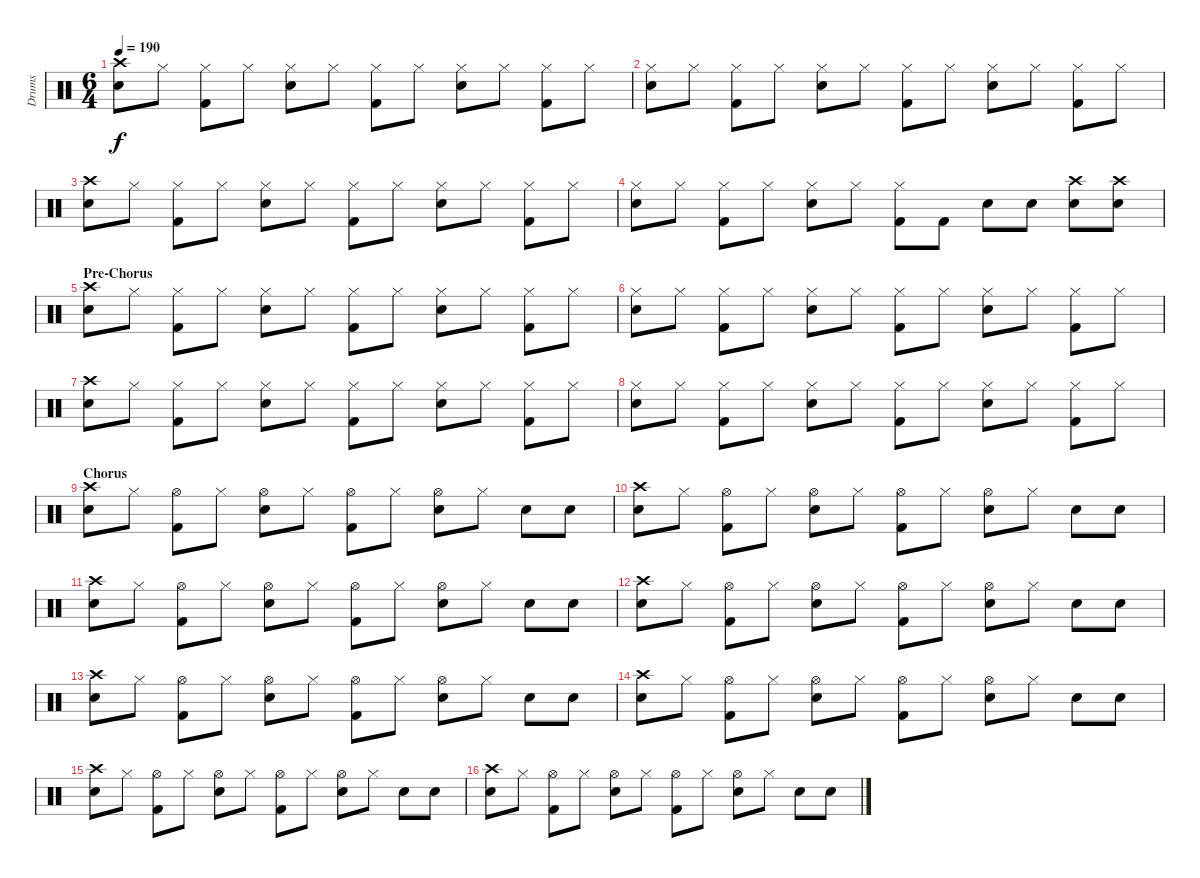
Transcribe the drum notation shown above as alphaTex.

\track ("Drums" "Drums") {instrument percussion}
\staff {score}
\articulation defaults
\ts (6 4)
\tempo 190
\clef neutral
\ks c
("Crash high (hit)" "Snare (hit) 2").8{dy f} "Hi-Hat (closed)".8 ("Hi-Hat (closed)" "Kick (hit) 2").8 "Hi-Hat (closed)".8 ("Hi-Hat (closed)" "Snare (hit) 2").8 "Hi-Hat (closed)".8 ("Hi-Hat (closed)" "Kick (hit) 2").8 "Hi-Hat (closed)".8 ("Hi-Hat (closed)" "Snare (hit) 2").8 "Hi-Hat (closed)".8 ("Hi-Hat (closed)" "Kick (hit) 2").8 "Hi-Hat (closed)".8 |
("Hi-Hat (closed)" "Snare (hit) 2").8 "Hi-Hat (closed)".8 ("Hi-Hat (closed)" "Kick (hit) 2").8 "Hi-Hat (closed)".8 ("Hi-Hat (closed)" "Snare (hit) 2").8 "Hi-Hat (closed)".8 ("Hi-Hat (closed)" "Kick (hit) 2").8 "Hi-Hat (closed)".8 ("Hi-Hat (closed)" "Snare (hit) 2").8 "Hi-Hat (closed)".8 ("Hi-Hat (closed)" "Kick (hit) 2").8 "Hi-Hat (closed)".8 |
("Crash high (hit)" "Snare (hit) 2").8 "Hi-Hat (closed)".8 ("Hi-Hat (closed)" "Kick (hit) 2").8 "Hi-Hat (closed)".8 ("Hi-Hat (closed)" "Snare (hit) 2").8 "Hi-Hat (closed)".8 ("Hi-Hat (closed)" "Kick (hit) 2").8 "Hi-Hat (closed)".8 ("Hi-Hat (closed)" "Snare (hit) 2").8 "Hi-Hat (closed)".8 ("Hi-Hat (closed)" "Kick (hit) 2").8 "Hi-Hat (closed)".8 |
("Hi-Hat (closed)" "Snare (hit) 2").8 "Hi-Hat (closed)".8 ("Hi-Hat (closed)" "Kick (hit) 2").8 "Hi-Hat (closed)".8 ("Hi-Hat (closed)" "Snare (hit) 2").8 "Hi-Hat (closed)".8 ("Hi-Hat (closed)" "Kick (hit) 2").8 "Kick (hit) 2".8 "Snare (hit) 2".8 "Snare (hit) 2".8 ("Crash high (hit)" "Electric Snare (hit)").8 ("Crash high (hit)" "Electric Snare (hit)").8 |
\section ("" "Pre-Chorus")
("Crash high (hit)" "Snare (hit) 2").8 "Hi-Hat (closed)".8 ("Hi-Hat (closed)" "Kick (hit) 2").8 "Hi-Hat (closed)".8 ("Hi-Hat (closed)" "Snare (hit) 2").8 "Hi-Hat (closed)".8 ("Hi-Hat (closed)" "Kick (hit) 2").8 "Hi-Hat (closed)".8 ("Hi-Hat (closed)" "Snare (hit) 2").8 "Hi-Hat (closed)".8 ("Hi-Hat (closed)" "Kick (hit) 2").8 "Hi-Hat (closed)".8 |
("Hi-Hat (closed)" "Snare (hit) 2").8 "Hi-Hat (closed)".8 ("Hi-Hat (closed)" "Kick (hit) 2").8 "Hi-Hat (closed)".8 ("Hi-Hat (closed)" "Snare (hit) 2").8 "Hi-Hat (closed)".8 ("Hi-Hat (closed)" "Kick (hit) 2").8 "Hi-Hat (closed)".8 ("Hi-Hat (closed)" "Snare (hit) 2").8 "Hi-Hat (closed)".8 ("Hi-Hat (closed)" "Kick (hit) 2").8 "Hi-Hat (closed)".8 |
("Crash high (hit)" "Snare (hit) 2").8 "Hi-Hat (closed)".8 ("Hi-Hat (closed)" "Kick (hit) 2").8 "Hi-Hat (closed)".8 ("Hi-Hat (closed)" "Snare (hit) 2").8 "Hi-Hat (closed)".8 ("Hi-Hat (closed)" "Kick (hit) 2").8 "Hi-Hat (closed)".8 ("Hi-Hat (closed)" "Snare (hit) 2").8 "Hi-Hat (closed)".8 ("Hi-Hat (closed)" "Kick (hit) 2").8 "Hi-Hat (closed)".8 |
("Hi-Hat (closed)" "Snare (hit) 2").8 "Hi-Hat (closed)".8 ("Hi-Hat (closed)" "Kick (hit) 2").8 "Hi-Hat (closed)".8 ("Hi-Hat (closed)" "Snare (hit) 2").8 "Hi-Hat (closed)".8 ("Hi-Hat (closed)" "Kick (hit) 2").8 "Hi-Hat (closed)".8 ("Hi-Hat (closed)" "Snare (hit) 2").8 "Hi-Hat (closed)".8 ("Hi-Hat (closed)" "Kick (hit) 2").8 "Hi-Hat (closed)".8 |
\section ("" "Chorus")
("Crash high (hit)" "Snare (hit) 2").8 "Hi-Hat (closed)".8 ("Hi-Hat (open)" "Kick (hit) 2").8 "Hi-Hat (closed)".8 ("Hi-Hat (open)" "Snare (hit) 2").8 "Hi-Hat (closed)".8 ("Hi-Hat (open)" "Kick (hit) 2").8 "Hi-Hat (closed)".8 ("Hi-Hat (open)" "Snare (hit) 2").8 "Hi-Hat (closed)".8 "Snare (hit) 2".8 "Snare (hit) 2".8 |
("Crash high (hit)" "Snare (hit) 2").8 "Hi-Hat (closed)".8 ("Hi-Hat (open)" "Kick (hit) 2").8 "Hi-Hat (closed)".8 ("Hi-Hat (open)" "Snare (hit) 2").8 "Hi-Hat (closed)".8 ("Hi-Hat (open)" "Kick (hit) 2").8 "Hi-Hat (closed)".8 ("Hi-Hat (open)" "Snare (hit) 2").8 "Hi-Hat (closed)".8 "Snare (hit) 2".8 "Snare (hit) 2".8 |
("Crash high (hit)" "Snare (hit) 2").8 "Hi-Hat (closed)".8 ("Hi-Hat (open)" "Kick (hit) 2").8 "Hi-Hat (closed)".8 ("Hi-Hat (open)" "Snare (hit) 2").8 "Hi-Hat (closed)".8 ("Hi-Hat (open)" "Kick (hit) 2").8 "Hi-Hat (closed)".8 ("Hi-Hat (open)" "Snare (hit) 2").8 "Hi-Hat (closed)".8 "Snare (hit) 2".8 "Snare (hit) 2".8 |
("Crash high (hit)" "Snare (hit) 2").8 "Hi-Hat (closed)".8 ("Hi-Hat (open)" "Kick (hit) 2").8 "Hi-Hat (closed)".8 ("Hi-Hat (open)" "Snare (hit) 2").8 "Hi-Hat (closed)".8 ("Hi-Hat (open)" "Kick (hit) 2").8 "Hi-Hat (closed)".8 ("Hi-Hat (open)" "Snare (hit) 2").8 "Hi-Hat (closed)".8 "Snare (hit) 2".8 "Snare (hit) 2".8 |
("Crash high (hit)" "Snare (hit) 2").8 "Hi-Hat (closed)".8 ("Hi-Hat (open)" "Kick (hit) 2").8 "Hi-Hat (closed)".8 ("Hi-Hat (open)" "Snare (hit) 2").8 "Hi-Hat (closed)".8 ("Hi-Hat (open)" "Kick (hit) 2").8 "Hi-Hat (closed)".8 ("Hi-Hat (open)" "Snare (hit) 2").8 "Hi-Hat (closed)".8 "Snare (hit) 2".8 "Snare (hit) 2".8 |
("Crash high (hit)" "Snare (hit) 2").8 "Hi-Hat (closed)".8 ("Hi-Hat (open)" "Kick (hit) 2").8 "Hi-Hat (closed)".8 ("Hi-Hat (open)" "Snare (hit) 2").8 "Hi-Hat (closed)".8 ("Hi-Hat (open)" "Kick (hit) 2").8 "Hi-Hat (closed)".8 ("Hi-Hat (open)" "Snare (hit) 2").8 "Hi-Hat (closed)".8 "Snare (hit) 2".8 "Snare (hit) 2".8 |
("Crash high (hit)" "Snare (hit) 2").8 "Hi-Hat (closed)".8 ("Hi-Hat (open)" "Kick (hit) 2").8 "Hi-Hat (closed)".8 ("Hi-Hat (open)" "Snare (hit) 2").8 "Hi-Hat (closed)".8 ("Hi-Hat (open)" "Kick (hit) 2").8 "Hi-Hat (closed)".8 ("Hi-Hat (open)" "Snare (hit) 2").8 "Hi-Hat (closed)".8 "Snare (hit) 2".8 "Snare (hit) 2".8 |
("Crash high (hit)" "Snare (hit) 2").8 "Hi-Hat (closed)".8 ("Hi-Hat (open)" "Kick (hit) 2").8 "Hi-Hat (closed)".8 ("Hi-Hat (open)" "Snare (hit) 2").8 "Hi-Hat (closed)".8 ("Hi-Hat (open)" "Kick (hit) 2").8 "Hi-Hat (closed)".8 ("Hi-Hat (open)" "Snare (hit) 2").8 "Hi-Hat (closed)".8 "Snare (hit) 2".8 "Snare (hit) 2".8
